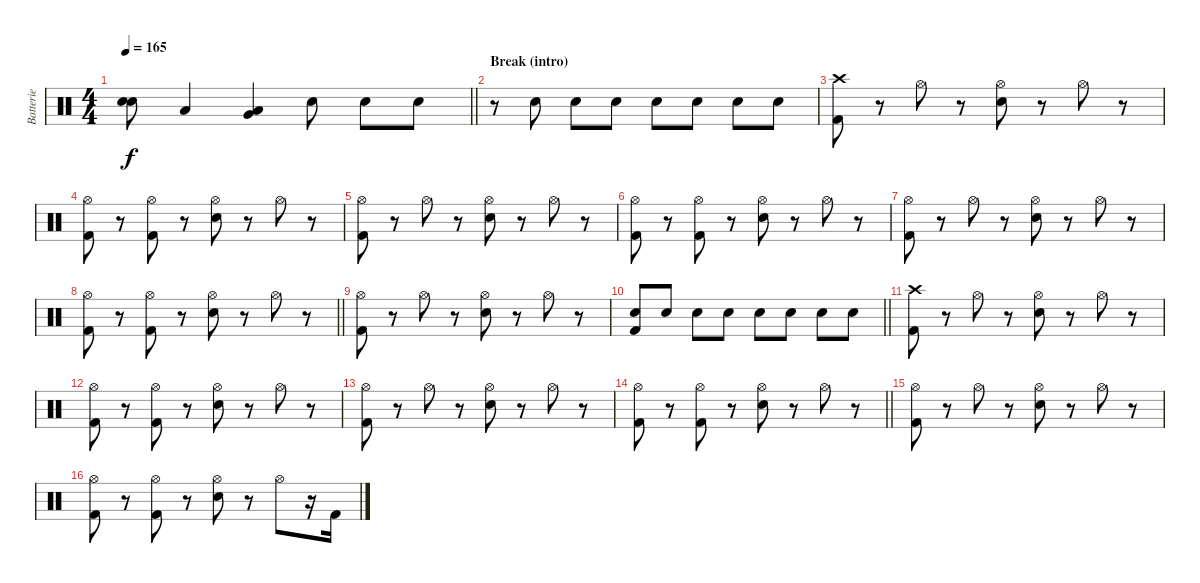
\track ("Batterie" "Batterie") {instrument percussion}
\staff {score}
\articulation defaults
\ts (4 4)
\tempo 165
\clef neutral
\barLineRight lightlight
\ks c
("Electric Snare (hit)" "Electric Snare (hit)").8{bu 120 dy f} "Low Tom (hit)".4 ("Low Tom (hit)" "Very Low Tom (hit)").4{bu 120} "Electric Snare (hit)".8 "Electric Snare (hit)".8 "Electric Snare (hit)".8 |
\section ("" "Break (intro)")
r.8 "Electric Snare (hit)".8 "Electric Snare (hit)".8 "Electric Snare (hit)".8 "Electric Snare (hit)".8 "Electric Snare (hit)".8 "Electric Snare (hit)".8 "Electric Snare (hit)".8 |
("Crash high (hit)" "Kick (hit) 2").8 r.8 "Hi-Hat (open)".8 r.8 ("Hi-Hat (open)" "Electric Snare (hit)").8 r.8 "Hi-Hat (open)".8 r.8 |
("Hi-Hat (open)" "Kick (hit) 2").8 r.8 ("Hi-Hat (open)" "Kick (hit) 2").8 r.8 ("Hi-Hat (open)" "Electric Snare (hit)").8 r.8 "Hi-Hat (open)".8 r.8 |
("Hi-Hat (open)" "Kick (hit) 2").8 r.8 "Hi-Hat (open)".8 r.8 ("Hi-Hat (open)" "Electric Snare (hit)").8 r.8 "Hi-Hat (open)".8 r.8 |
("Hi-Hat (open)" "Kick (hit) 2").8 r.8 ("Hi-Hat (open)" "Kick (hit) 2").8 r.8 ("Hi-Hat (open)" "Electric Snare (hit)").8 r.8 "Hi-Hat (open)".8 r.8 |
("Hi-Hat (open)" "Kick (hit) 2").8 r.8 "Hi-Hat (open)".8 r.8 ("Hi-Hat (open)" "Electric Snare (hit)").8 r.8 "Hi-Hat (open)".8 r.8 |
\barLineRight lightlight
("Hi-Hat (open)" "Kick (hit) 2").8 r.8 ("Hi-Hat (open)" "Kick (hit) 2").8 r.8 ("Hi-Hat (open)" "Electric Snare (hit)").8 r.8 "Hi-Hat (open)".8 r.8 |
("Hi-Hat (open)" "Kick (hit) 2").8 r.8 "Hi-Hat (open)".8 r.8 ("Hi-Hat (open)" "Electric Snare (hit)").8 r.8 "Hi-Hat (open)".8 r.8 |
\barLineRight lightlight
("Electric Snare (hit)" "Kick (hit) 2").8 "Electric Snare (hit)".8 "Electric Snare (hit)".8 "Electric Snare (hit)".8 "Electric Snare (hit)".8 "Electric Snare (hit)".8 "Electric Snare (hit)".8 "Electric Snare (hit)".8 |
("Crash high (hit)" "Kick (hit) 2").8 r.8 "Hi-Hat (open)".8 r.8 ("Hi-Hat (open)" "Electric Snare (hit)").8 r.8 "Hi-Hat (open)".8 r.8 |
("Hi-Hat (open)" "Kick (hit) 2").8 r.8 ("Hi-Hat (open)" "Kick (hit) 2").8 r.8 ("Hi-Hat (open)" "Electric Snare (hit)").8 r.8 "Hi-Hat (open)".8 r.8 |
("Hi-Hat (open)" "Kick (hit) 2").8 r.8 "Hi-Hat (open)".8 r.8 ("Hi-Hat (open)" "Electric Snare (hit)").8 r.8 "Hi-Hat (open)".8 r.8 |
\barLineRight lightlight
("Hi-Hat (open)" "Kick (hit) 2").8 r.8 ("Hi-Hat (open)" "Kick (hit) 2").8 r.8 ("Hi-Hat (open)" "Electric Snare (hit)").8 r.8 "Hi-Hat (open)".8 r.8 |
("Hi-Hat (open)" "Kick (hit) 2").8 r.8 "Hi-Hat (open)".8 r.8 ("Hi-Hat (open)" "Electric Snare (hit)").8 r.8 "Hi-Hat (open)".8 r.8 |
("Hi-Hat (open)" "Kick (hit) 2").8 r.8 ("Hi-Hat (open)" "Kick (hit) 2").8 r.8 ("Hi-Hat (open)" "Electric Snare (hit)").8 r.8 "Hi-Hat (open)".8 r.16 "Kick (hit) 2".16
